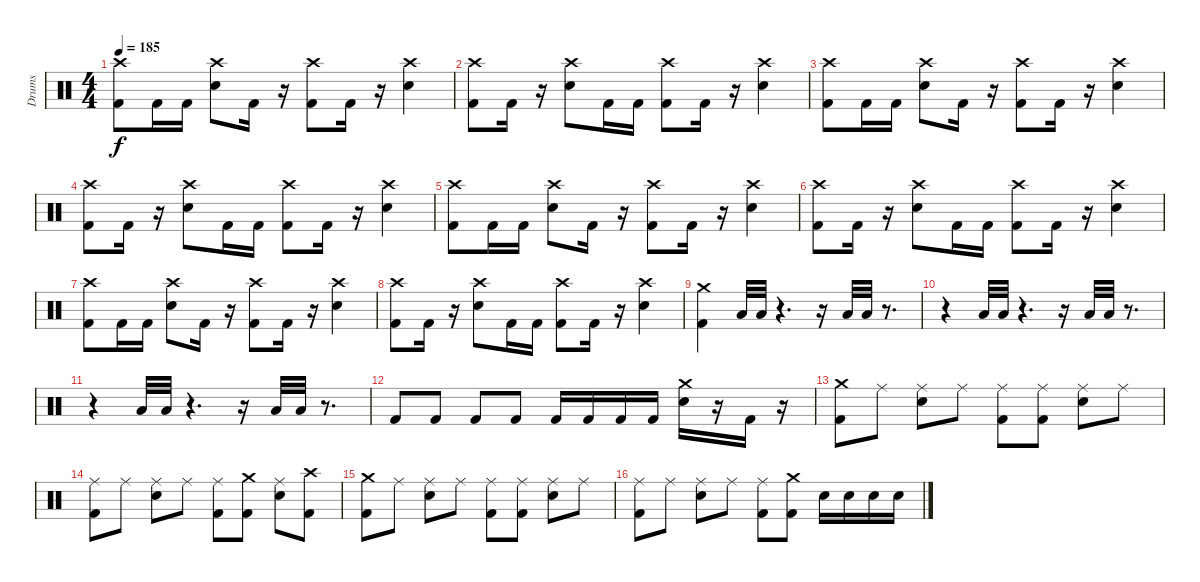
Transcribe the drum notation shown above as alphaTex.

\track ("Drums" "Drums") {instrument percussion}
\staff {score}
\articulation defaults
\ts (4 4)
\tempo 185
\clef neutral
\ks c
("Kick (hit) 2" "Crash high (hit)").8{dy f} "Kick (hit) 2".16 "Kick (hit) 2".16 ("Electric Snare (hit)" "Crash high (hit)").8 "Kick (hit) 2".16 r.16 ("Kick (hit) 2" "Crash high (hit)").8 "Kick (hit) 2".16 r.16 ("Electric Snare (hit)" "Crash high (hit)").4 |
("Kick (hit) 2" "Crash high (hit)").8 "Kick (hit) 2".16 r.16 ("Electric Snare (hit)" "Crash high (hit)").8 "Kick (hit) 2".16 "Kick (hit) 2".16 ("Kick (hit) 2" "Crash high (hit)").8 "Kick (hit) 2".16 r.16 ("Electric Snare (hit)" "Crash high (hit)").4 |
("Kick (hit) 2" "Crash high (hit)").8 "Kick (hit) 2".16 "Kick (hit) 2".16 ("Electric Snare (hit)" "Crash high (hit)").8 "Kick (hit) 2".16 r.16 ("Kick (hit) 2" "Crash high (hit)").8 "Kick (hit) 2".16 r.16 ("Electric Snare (hit)" "Crash high (hit)").4 |
("Kick (hit) 2" "Crash high (hit)").8 "Kick (hit) 2".16 r.16 ("Electric Snare (hit)" "Crash high (hit)").8 "Kick (hit) 2".16 "Kick (hit) 2".16 ("Kick (hit) 2" "Crash high (hit)").8 "Kick (hit) 2".16 r.16 ("Electric Snare (hit)" "Crash high (hit)").4 |
("Kick (hit) 2" "Crash high (hit)").8 "Kick (hit) 2".16 "Kick (hit) 2".16 ("Electric Snare (hit)" "Crash high (hit)").8 "Kick (hit) 2".16 r.16 ("Kick (hit) 2" "Crash high (hit)").8 "Kick (hit) 2".16 r.16 ("Electric Snare (hit)" "Crash high (hit)").4 |
("Kick (hit) 2" "Crash high (hit)").8 "Kick (hit) 2".16 r.16 ("Electric Snare (hit)" "Crash high (hit)").8 "Kick (hit) 2".16 "Kick (hit) 2".16 ("Kick (hit) 2" "Crash high (hit)").8 "Kick (hit) 2".16 r.16 ("Electric Snare (hit)" "Crash high (hit)").4 |
("Kick (hit) 2" "Crash high (hit)").8 "Kick (hit) 2".16 "Kick (hit) 2".16 ("Electric Snare (hit)" "Crash high (hit)").8 "Kick (hit) 2".16 r.16 ("Kick (hit) 2" "Crash high (hit)").8 "Kick (hit) 2".16 r.16 ("Electric Snare (hit)" "Crash high (hit)").4 |
("Kick (hit) 2" "Crash high (hit)").8 "Kick (hit) 2".16 r.16 ("Electric Snare (hit)" "Crash high (hit)").8 "Kick (hit) 2".16 "Kick (hit) 2".16 ("Kick (hit) 2" "Crash high (hit)").8 "Kick (hit) 2".16 r.16 ("Electric Snare (hit)" "Crash high (hit)").4 |
("Kick (hit) 2" "Crash medium (hit)").4 "Low Floor Tom (hit)".32 "Low Floor Tom (hit)".32 r.4{d} r.16 "Low Floor Tom (hit)".32 "Low Floor Tom (hit)".32 r.8{d} |
r.4 "Low Floor Tom (hit)".32 "Low Floor Tom (hit)".32 r.4{d} r.16 "Low Floor Tom (hit)".32 "Low Floor Tom (hit)".32 r.8{d} |
r.4 "Low Floor Tom (hit)".32 "Low Floor Tom (hit)".32 r.4{d} r.16 "Low Floor Tom (hit)".32 "Low Floor Tom (hit)".32 r.8{d} |
"Kick (hit) 2".8 "Kick (hit) 2".8 "Kick (hit) 2".8 "Kick (hit) 2".8 "Kick (hit) 2".16 "Kick (hit) 2".16 "Kick (hit) 2".16 "Kick (hit) 2".16 ("Crash medium (hit)" "Electric Snare (hit)").16 r.16 "Kick (hit) 2".16 r.16 |
("Kick (hit) 2" "Crash medium (hit)").8 "Ride (middle)".8 ("Electric Snare (hit)" "Ride (middle)").8 "Ride (middle)".8 ("Kick (hit) 2" "Ride (middle)").8 ("Kick (hit) 2" "Ride (middle)").8 ("Electric Snare (hit)" "Ride (middle)").8 "Ride (middle)".8 |
("Kick (hit) 2" "Ride (middle)").8 "Ride (middle)".8 ("Electric Snare (hit)" "Ride (middle)").8 "Ride (middle)".8 ("Kick (hit) 2" "Ride (middle)").8 ("Kick (hit) 2" "Crash medium (hit)").8 ("Electric Snare (hit)" "Ride (middle)").8 ("Kick (hit) 2" "Crash high (hit)").8 |
("Kick (hit) 2" "Crash medium (hit)").8 "Ride (middle)".8 ("Electric Snare (hit)" "Ride (middle)").8 "Ride (middle)".8 ("Kick (hit) 2" "Ride (middle)").8 ("Kick (hit) 2" "Ride (middle)").8 ("Electric Snare (hit)" "Ride (middle)").8 "Ride (middle)".8 |
("Kick (hit) 2" "Ride (middle)").8 "Ride (middle)".8 ("Electric Snare (hit)" "Ride (middle)").8 "Ride (middle)".8 ("Kick (hit) 2" "Ride (middle)").8 ("Kick (hit) 2" "Crash medium (hit)").8 "Electric Snare (hit)".16 "Electric Snare (hit)".16 "Electric Snare (hit)".16 "Electric Snare (hit)".16
